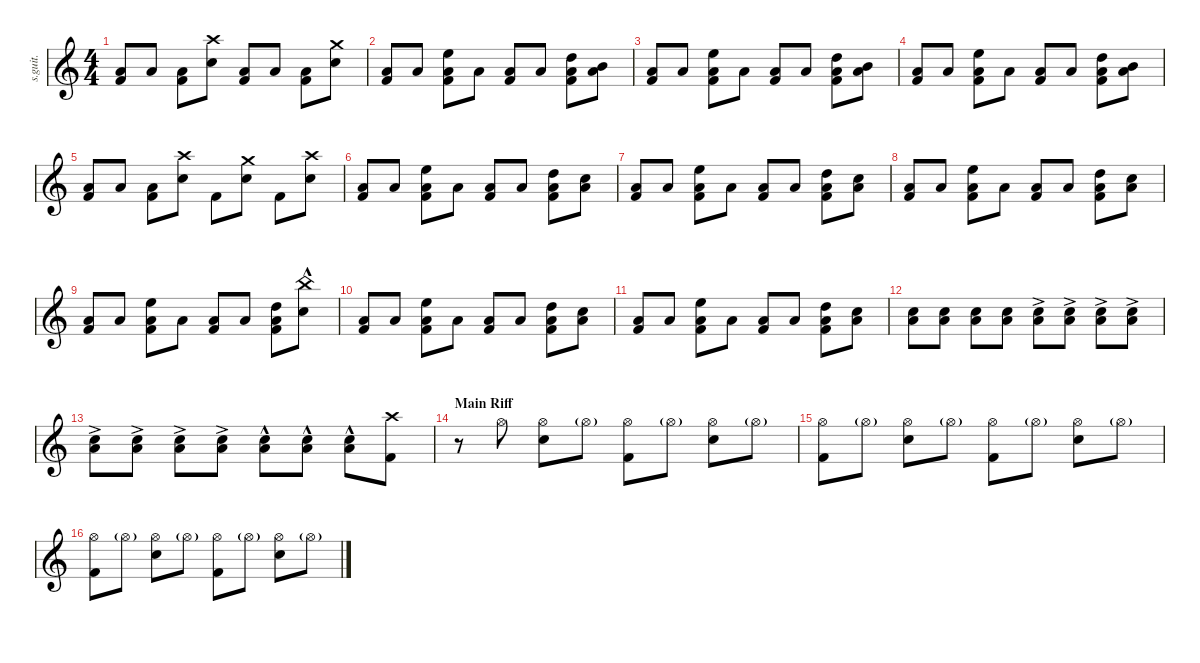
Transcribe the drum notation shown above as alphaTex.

\defaultSystemsLayout 4
\hideDynamics
\bracketExtendMode nobrackets
\track ("Lars Ulrich" "s.guit.") {instrument percussion}
\staff {score}
\articulation defaults
\ts (4 4)
\tempo (124 hide)
\clef g2
\ks c
("Low Floor Tom (hit)" "Kick (hit) 2").8{lyrics (0 "") lyrics (1 "") lyrics (2 "") lyrics (3 "") lyrics (4 "") dy f} "Low Floor Tom (hit)".8{lyrics (0 "") lyrics (1 "") lyrics (2 "") lyrics (3 "") lyrics (4 "")} ("Low Floor Tom (hit)" "Kick (hit) 2").8{lyrics (0 "") lyrics (1 "") lyrics (2 "") lyrics (3 "") lyrics (4 "")} ("Snare (hit) 2" "Crash high (hit)").8{lyrics (0 "") lyrics (1 "") lyrics (2 "") lyrics (3 "") lyrics (4 "")} ("Low Floor Tom (hit)" "Kick (hit) 2").8{lyrics (0 "") lyrics (1 "") lyrics (2 "") lyrics (3 "") lyrics (4 "")} "Low Floor Tom (hit)".8{lyrics (0 "") lyrics (1 "") lyrics (2 "") lyrics (3 "") lyrics (4 "") dy mf} ("Low Floor Tom (hit)" "Kick (hit) 2").8{lyrics (0 "") lyrics (1 "") lyrics (2 "") lyrics (3 "") lyrics (4 "") dy f} ("Snare (hit) 2" "Crash medium (hit)").8{lyrics (0 "") lyrics (1 "") lyrics (2 "") lyrics (3 "") lyrics (4 "")} |
("Low Floor Tom (hit)" "Kick (hit) 2").8{lyrics (0 "") lyrics (1 "") lyrics (2 "") lyrics (3 "") lyrics (4 "")} "Low Floor Tom (hit)".8{lyrics (0 "") lyrics (1 "") lyrics (2 "") lyrics (3 "") lyrics (4 "") dy mf} ("Low Floor Tom (hit)" "Kick (hit) 2" "High Floor Tom (hit)").8{lyrics (0 "") lyrics (1 "") lyrics (2 "") lyrics (3 "") lyrics (4 "") dy f} "Low Floor Tom (hit)".8{lyrics (0 "") lyrics (1 "") lyrics (2 "") lyrics (3 "") lyrics (4 "") dy mf} ("Low Floor Tom (hit)" "Kick (hit) 2").8{lyrics (0 "") lyrics (1 "") lyrics (2 "") lyrics (3 "") lyrics (4 "") dy f} "Low Floor Tom (hit)".8{lyrics (0 "") lyrics (1 "") lyrics (2 "") lyrics (3 "") lyrics (4 "") dy mf} ("Low Floor Tom (hit)" "Kick (hit) 2" "High Tom (hit)").8{lyrics (0 "") lyrics (1 "") lyrics (2 "") lyrics (3 "") lyrics (4 "") dy f} ("Low Floor Tom (hit)" "Mid Tom (hit)").8{lyrics (0 "") lyrics (1 "") lyrics (2 "") lyrics (3 "") lyrics (4 "") dy ff} |
("Low Floor Tom (hit)" "Kick (hit) 2").8{lyrics (0 "") lyrics (1 "") lyrics (2 "") lyrics (3 "") lyrics (4 "") dy f} "Low Floor Tom (hit)".8{lyrics (0 "") lyrics (1 "") lyrics (2 "") lyrics (3 "") lyrics (4 "") dy mf} ("Low Floor Tom (hit)" "Kick (hit) 2" "High Floor Tom (hit)").8{lyrics (0 "") lyrics (1 "") lyrics (2 "") lyrics (3 "") lyrics (4 "") dy f} "Low Floor Tom (hit)".8{lyrics (0 "") lyrics (1 "") lyrics (2 "") lyrics (3 "") lyrics (4 "") dy mf} ("Low Floor Tom (hit)" "Kick (hit) 2").8{lyrics (0 "") lyrics (1 "") lyrics (2 "") lyrics (3 "") lyrics (4 "") dy f} "Low Floor Tom (hit)".8{lyrics (0 "") lyrics (1 "") lyrics (2 "") lyrics (3 "") lyrics (4 "") dy mf} ("Low Floor Tom (hit)" "Kick (hit) 2" "High Tom (hit)").8{lyrics (0 "") lyrics (1 "") lyrics (2 "") lyrics (3 "") lyrics (4 "") dy f} ("Low Floor Tom (hit)" "Mid Tom (hit)").8{lyrics (0 "") lyrics (1 "") lyrics (2 "") lyrics (3 "") lyrics (4 "") dy ff} |
("Low Floor Tom (hit)" "Kick (hit) 2").8{lyrics (0 "") lyrics (1 "") lyrics (2 "") lyrics (3 "") lyrics (4 "") dy f} "Low Floor Tom (hit)".8{lyrics (0 "") lyrics (1 "") lyrics (2 "") lyrics (3 "") lyrics (4 "") dy mf} ("Low Floor Tom (hit)" "Kick (hit) 2" "High Floor Tom (hit)").8{lyrics (0 "") lyrics (1 "") lyrics (2 "") lyrics (3 "") lyrics (4 "") dy f} "Low Floor Tom (hit)".8{lyrics (0 "") lyrics (1 "") lyrics (2 "") lyrics (3 "") lyrics (4 "") dy mf} ("Low Floor Tom (hit)" "Kick (hit) 2").8{lyrics (0 "") lyrics (1 "") lyrics (2 "") lyrics (3 "") lyrics (4 "") dy f} "Low Floor Tom (hit)".8{lyrics (0 "") lyrics (1 "") lyrics (2 "") lyrics (3 "") lyrics (4 "") dy mf} ("Low Floor Tom (hit)" "Kick (hit) 2" "High Tom (hit)").8{lyrics (0 "") lyrics (1 "") lyrics (2 "") lyrics (3 "") lyrics (4 "") dy f} ("Low Floor Tom (hit)" "Mid Tom (hit)").8{lyrics (0 "") lyrics (1 "") lyrics (2 "") lyrics (3 "") lyrics (4 "") dy ff} |
("Low Floor Tom (hit)" "Kick (hit) 2").8{lyrics (0 "") lyrics (1 "") lyrics (2 "") lyrics (3 "") lyrics (4 "") dy f} "Low Floor Tom (hit)".8{lyrics (0 "") lyrics (1 "") lyrics (2 "") lyrics (3 "") lyrics (4 "") dy mf} ("Low Floor Tom (hit)" "Kick (hit) 2").8{lyrics (0 "") lyrics (1 "") lyrics (2 "") lyrics (3 "") lyrics (4 "") dy f} ("Snare (hit) 2" "Crash high (hit)").8{lyrics (0 "") lyrics (1 "") lyrics (2 "") lyrics (3 "") lyrics (4 "")} "Kick (hit) 2".8{lyrics (0 "") lyrics (1 "") lyrics (2 "") lyrics (3 "") lyrics (4 "")} ("Snare (hit) 2" "Crash medium (hit)").8{lyrics (0 "") lyrics (1 "") lyrics (2 "") lyrics (3 "") lyrics (4 "")} "Kick (hit) 2".8{lyrics (0 "") lyrics (1 "") lyrics (2 "") lyrics (3 "") lyrics (4 "")} ("Snare (hit) 2" "Crash high (hit)").8{lyrics (0 "") lyrics (1 "") lyrics (2 "") lyrics (3 "") lyrics (4 "")} |
("Low Floor Tom (hit)" "Kick (hit) 2").8{lyrics (0 "") lyrics (1 "") lyrics (2 "") lyrics (3 "") lyrics (4 "")} "Low Floor Tom (hit)".8{lyrics (0 "") lyrics (1 "") lyrics (2 "") lyrics (3 "") lyrics (4 "") dy mf} ("Low Floor Tom (hit)" "Kick (hit) 2" "High Floor Tom (hit)").8{lyrics (0 "") lyrics (1 "") lyrics (2 "") lyrics (3 "") lyrics (4 "") dy f} "Low Floor Tom (hit)".8{lyrics (0 "") lyrics (1 "") lyrics (2 "") lyrics (3 "") lyrics (4 "") dy mf} ("Low Floor Tom (hit)" "Kick (hit) 2").8{lyrics (0 "") lyrics (1 "") lyrics (2 "") lyrics (3 "") lyrics (4 "") dy f} "Low Floor Tom (hit)".8{lyrics (0 "") lyrics (1 "") lyrics (2 "") lyrics (3 "") lyrics (4 "") dy mf} ("Low Floor Tom (hit)" "Kick (hit) 2" "High Tom (hit)").8{lyrics (0 "") lyrics (1 "") lyrics (2 "") lyrics (3 "") lyrics (4 "")} ("Snare (hit) 2" "Low Floor Tom (hit)").8{lyrics (0 "") lyrics (1 "") lyrics (2 "") lyrics (3 "") lyrics (4 "")} |
("Low Floor Tom (hit)" "Kick (hit) 2").8{lyrics (0 "") lyrics (1 "") lyrics (2 "") lyrics (3 "") lyrics (4 "")} "Low Floor Tom (hit)".8{lyrics (0 "") lyrics (1 "") lyrics (2 "") lyrics (3 "") lyrics (4 "")} ("Low Floor Tom (hit)" "Kick (hit) 2" "High Floor Tom (hit)").8{lyrics (0 "") lyrics (1 "") lyrics (2 "") lyrics (3 "") lyrics (4 "") dy f} "Low Floor Tom (hit)".8{lyrics (0 "") lyrics (1 "") lyrics (2 "") lyrics (3 "") lyrics (4 "") dy mf} ("Low Floor Tom (hit)" "Kick (hit) 2").8{lyrics (0 "") lyrics (1 "") lyrics (2 "") lyrics (3 "") lyrics (4 "") dy f} "Low Floor Tom (hit)".8{lyrics (0 "") lyrics (1 "") lyrics (2 "") lyrics (3 "") lyrics (4 "") dy mf} ("Low Floor Tom (hit)" "Kick (hit) 2" "High Tom (hit)").8{lyrics (0 "") lyrics (1 "") lyrics (2 "") lyrics (3 "") lyrics (4 "") dy f} ("Snare (hit) 2" "Low Floor Tom (hit)").8{lyrics (0 "") lyrics (1 "") lyrics (2 "") lyrics (3 "") lyrics (4 "")} |
("Low Floor Tom (hit)" "Kick (hit) 2").8{lyrics (0 "") lyrics (1 "") lyrics (2 "") lyrics (3 "") lyrics (4 "")} "Low Floor Tom (hit)".8{lyrics (0 "") lyrics (1 "") lyrics (2 "") lyrics (3 "") lyrics (4 "") dy mf} ("Low Floor Tom (hit)" "Kick (hit) 2" "High Floor Tom (hit)").8{lyrics (0 "") lyrics (1 "") lyrics (2 "") lyrics (3 "") lyrics (4 "") dy f} "Low Floor Tom (hit)".8{lyrics (0 "") lyrics (1 "") lyrics (2 "") lyrics (3 "") lyrics (4 "") dy mf} ("Low Floor Tom (hit)" "Kick (hit) 2").8{lyrics (0 "") lyrics (1 "") lyrics (2 "") lyrics (3 "") lyrics (4 "") dy f} "Low Floor Tom (hit)".8{lyrics (0 "") lyrics (1 "") lyrics (2 "") lyrics (3 "") lyrics (4 "") dy mf} ("Low Floor Tom (hit)" "Kick (hit) 2" "High Tom (hit)").8{lyrics (0 "") lyrics (1 "") lyrics (2 "") lyrics (3 "") lyrics (4 "") dy f} ("Snare (hit) 2" "Low Floor Tom (hit)").8{lyrics (0 "") lyrics (1 "") lyrics (2 "") lyrics (3 "") lyrics (4 "")} |
("Low Floor Tom (hit)" "Kick (hit) 2").8{lyrics (0 "") lyrics (1 "") lyrics (2 "") lyrics (3 "") lyrics (4 "")} "Low Floor Tom (hit)".8{lyrics (0 "") lyrics (1 "") lyrics (2 "") lyrics (3 "") lyrics (4 "") dy mf} ("Low Floor Tom (hit)" "Kick (hit) 2" "High Floor Tom (hit)").8{lyrics (0 "") lyrics (1 "") lyrics (2 "") lyrics (3 "") lyrics (4 "") dy f} "Low Floor Tom (hit)".8{lyrics (0 "") lyrics (1 "") lyrics (2 "") lyrics (3 "") lyrics (4 "") dy mf} ("Low Floor Tom (hit)" "Kick (hit) 2").8{lyrics (0 "") lyrics (1 "") lyrics (2 "") lyrics (3 "") lyrics (4 "") dy f} "Low Floor Tom (hit)".8{lyrics (0 "") lyrics (1 "") lyrics (2 "") lyrics (3 "") lyrics (4 "") dy mf} ("Low Floor Tom (hit)" "Kick (hit) 2" "High Tom (hit)").8{lyrics (0 "") lyrics (1 "") lyrics (2 "") lyrics (3 "") lyrics (4 "") dy f} ("Snare (hit) 2" "China (hit)"{hac}).8{lyrics (0 "") lyrics (1 "") lyrics (2 "") lyrics (3 "") lyrics (4 "")} |
("Low Floor Tom (hit)" "Kick (hit) 2").8{lyrics (0 "") lyrics (1 "") lyrics (2 "") lyrics (3 "") lyrics (4 "")} "Low Floor Tom (hit)".8{lyrics (0 "") lyrics (1 "") lyrics (2 "") lyrics (3 "") lyrics (4 "") dy mf} ("Low Floor Tom (hit)" "Kick (hit) 2" "High Floor Tom (hit)").8{lyrics (0 "") lyrics (1 "") lyrics (2 "") lyrics (3 "") lyrics (4 "") dy f} "Low Floor Tom (hit)".8{lyrics (0 "") lyrics (1 "") lyrics (2 "") lyrics (3 "") lyrics (4 "") dy mf} ("Low Floor Tom (hit)" "Kick (hit) 2").8{lyrics (0 "") lyrics (1 "") lyrics (2 "") lyrics (3 "") lyrics (4 "") dy f} "Low Floor Tom (hit)".8{lyrics (0 "") lyrics (1 "") lyrics (2 "") lyrics (3 "") lyrics (4 "") dy mf} ("Low Floor Tom (hit)" "Kick (hit) 2" "High Tom (hit)").8{lyrics (0 "") lyrics (1 "") lyrics (2 "") lyrics (3 "") lyrics (4 "") dy f} ("Snare (hit) 2" "Low Floor Tom (hit)").8{lyrics (0 "") lyrics (1 "") lyrics (2 "") lyrics (3 "") lyrics (4 "")} |
("Low Floor Tom (hit)" "Kick (hit) 2").8{lyrics (0 "") lyrics (1 "") lyrics (2 "") lyrics (3 "") lyrics (4 "")} "Low Floor Tom (hit)".8{lyrics (0 "") lyrics (1 "") lyrics (2 "") lyrics (3 "") lyrics (4 "") dy mf} ("Low Floor Tom (hit)" "Kick (hit) 2" "High Floor Tom (hit)").8{lyrics (0 "") lyrics (1 "") lyrics (2 "") lyrics (3 "") lyrics (4 "") dy f} "Low Floor Tom (hit)".8{lyrics (0 "") lyrics (1 "") lyrics (2 "") lyrics (3 "") lyrics (4 "") dy mf} ("Low Floor Tom (hit)" "Kick (hit) 2").8{lyrics (0 "") lyrics (1 "") lyrics (2 "") lyrics (3 "") lyrics (4 "") dy f} "Low Floor Tom (hit)".8{lyrics (0 "") lyrics (1 "") lyrics (2 "") lyrics (3 "") lyrics (4 "") dy mf} ("Low Floor Tom (hit)" "Kick (hit) 2" "High Tom (hit)").8{lyrics (0 "") lyrics (1 "") lyrics (2 "") lyrics (3 "") lyrics (4 "") dy f} ("Snare (hit) 2" "Low Floor Tom (hit)").8{lyrics (0 "") lyrics (1 "") lyrics (2 "") lyrics (3 "") lyrics (4 "") dy pp} |
("Snare (hit) 2" "Low Floor Tom (hit)").8{lyrics (0 "") lyrics (1 "") lyrics (2 "") lyrics (3 "") lyrics (4 "")} ("Snare (hit) 2" "Low Floor Tom (hit)").8{lyrics (0 "") lyrics (1 "") lyrics (2 "") lyrics (3 "") lyrics (4 "")} ("Snare (hit) 2" "Low Floor Tom (hit)").8{lyrics (0 "") lyrics (1 "") lyrics (2 "") lyrics (3 "") lyrics (4 "") dy p} ("Snare (hit) 2" "Low Floor Tom (hit)").8{lyrics (0 "") lyrics (1 "") lyrics (2 "") lyrics (3 "") lyrics (4 "")} ("Snare (hit) 2"{ac} "Low Floor Tom (hit)"{ac}).8{lyrics (0 "") lyrics (1 "") lyrics (2 "") lyrics (3 "") lyrics (4 "")} ("Snare (hit) 2"{ac} "Low Floor Tom (hit)"{ac}).8{lyrics (0 "") lyrics (1 "") lyrics (2 "") lyrics (3 "") lyrics (4 "")} ("Snare (hit) 2"{ac} "Low Floor Tom (hit)"{ac}).8{lyrics (0 "") lyrics (1 "") lyrics (2 "") lyrics (3 "") lyrics (4 "") dy mp} ("Snare (hit) 2"{ac} "Low Floor Tom (hit)"{ac}).8{lyrics (0 "") lyrics (1 "") lyrics (2 "") lyrics (3 "") lyrics (4 "")} |
("Snare (hit) 2"{ac} "Low Floor Tom (hit)"{ac}).8{lyrics (0 "") lyrics (1 "") lyrics (2 "") lyrics (3 "") lyrics (4 "") dy mf} ("Snare (hit) 2"{ac} "Low Floor Tom (hit)"{ac}).8{lyrics (0 "") lyrics (1 "") lyrics (2 "") lyrics (3 "") lyrics (4 "")} ("Snare (hit) 2"{ac} "Low Floor Tom (hit)"{ac}).8{lyrics (0 "") lyrics (1 "") lyrics (2 "") lyrics (3 "") lyrics (4 "") dy f} ("Snare (hit) 2"{ac} "Low Floor Tom (hit)"{ac}).8{lyrics (0 "") lyrics (1 "") lyrics (2 "") lyrics (3 "") lyrics (4 "")} ("Snare (hit) 2"{hac} "Low Floor Tom (hit)"{hac}).8{lyrics (0 "") lyrics (1 "") lyrics (2 "") lyrics (3 "") lyrics (4 "")} ("Snare (hit) 2"{hac} "Low Floor Tom (hit)"{hac}).8{lyrics (0 "") lyrics (1 "") lyrics (2 "") lyrics (3 "") lyrics (4 "")} ("Snare (hit) 2"{hac} "Low Floor Tom (hit)"{hac}).8{lyrics (0 "") lyrics (1 "") lyrics (2 "") lyrics (3 "") lyrics (4 "")} ("Crash high (hit)" "Kick (hit) 2").8{lyrics (0 "") lyrics (1 "") lyrics (2 "") lyrics (3 "") lyrics (4 "")} |
\section ("" "Main Riff")
r.8 "Hi-Hat (open)".8{lyrics (0 "") lyrics (1 "") lyrics (2 "") lyrics (3 "") lyrics (4 "") dy mp} ("Hi-Hat (open)" "Snare (hit) 2").8{lyrics (0 "") lyrics (1 "") lyrics (2 "") lyrics (3 "") lyrics (4 "") dy f} "Hi-Hat (open)"{g}.8{lyrics (0 "") lyrics (1 "") lyrics (2 "") lyrics (3 "") lyrics (4 "") dy p} ("Hi-Hat (open)" "Kick (hit) 2").8{lyrics (0 "") lyrics (1 "") lyrics (2 "") lyrics (3 "") lyrics (4 "") dy f} "Hi-Hat (open)"{g}.8{lyrics (0 "") lyrics (1 "") lyrics (2 "") lyrics (3 "") lyrics (4 "") dy p} ("Hi-Hat (open)" "Snare (hit) 2").8{lyrics (0 "") lyrics (1 "") lyrics (2 "") lyrics (3 "") lyrics (4 "") dy f} "Hi-Hat (open)"{g}.8{lyrics (0 "") lyrics (1 "") lyrics (2 "") lyrics (3 "") lyrics (4 "") dy p} |
("Hi-Hat (open)" "Kick (hit) 2").8{lyrics (0 "") lyrics (1 "") lyrics (2 "") lyrics (3 "") lyrics (4 "") dy f} "Hi-Hat (open)"{g}.8{lyrics (0 "") lyrics (1 "") lyrics (2 "") lyrics (3 "") lyrics (4 "") dy p} ("Hi-Hat (open)" "Snare (hit) 2").8{lyrics (0 "") lyrics (1 "") lyrics (2 "") lyrics (3 "") lyrics (4 "") dy f} "Hi-Hat (open)"{g}.8{lyrics (0 "") lyrics (1 "") lyrics (2 "") lyrics (3 "") lyrics (4 "") dy p} ("Hi-Hat (open)" "Kick (hit) 2").8{lyrics (0 "") lyrics (1 "") lyrics (2 "") lyrics (3 "") lyrics (4 "") dy f} "Hi-Hat (open)"{g}.8{lyrics (0 "") lyrics (1 "") lyrics (2 "") lyrics (3 "") lyrics (4 "") dy p} ("Hi-Hat (open)" "Snare (hit) 2").8{lyrics (0 "") lyrics (1 "") lyrics (2 "") lyrics (3 "") lyrics (4 "") dy f} "Hi-Hat (open)"{g}.8{lyrics (0 "") lyrics (1 "") lyrics (2 "") lyrics (3 "") lyrics (4 "") dy p} |
("Hi-Hat (open)" "Kick (hit) 2").8{lyrics (0 "") lyrics (1 "") lyrics (2 "") lyrics (3 "") lyrics (4 "") dy f} "Hi-Hat (open)"{g}.8{lyrics (0 "") lyrics (1 "") lyrics (2 "") lyrics (3 "") lyrics (4 "") dy p} ("Hi-Hat (open)" "Snare (hit) 2").8{lyrics (0 "") lyrics (1 "") lyrics (2 "") lyrics (3 "") lyrics (4 "") dy f} "Hi-Hat (open)"{g}.8{lyrics (0 "") lyrics (1 "") lyrics (2 "") lyrics (3 "") lyrics (4 "") dy p} ("Hi-Hat (open)" "Kick (hit) 2").8{lyrics (0 "") lyrics (1 "") lyrics (2 "") lyrics (3 "") lyrics (4 "") dy f} "Hi-Hat (open)"{g}.8{lyrics (0 "") lyrics (1 "") lyrics (2 "") lyrics (3 "") lyrics (4 "") dy p} ("Hi-Hat (open)" "Snare (hit) 2").8{lyrics (0 "") lyrics (1 "") lyrics (2 "") lyrics (3 "") lyrics (4 "") dy f} "Hi-Hat (open)"{g}.8{lyrics (0 "") lyrics (1 "") lyrics (2 "") lyrics (3 "") lyrics (4 "") dy p}
